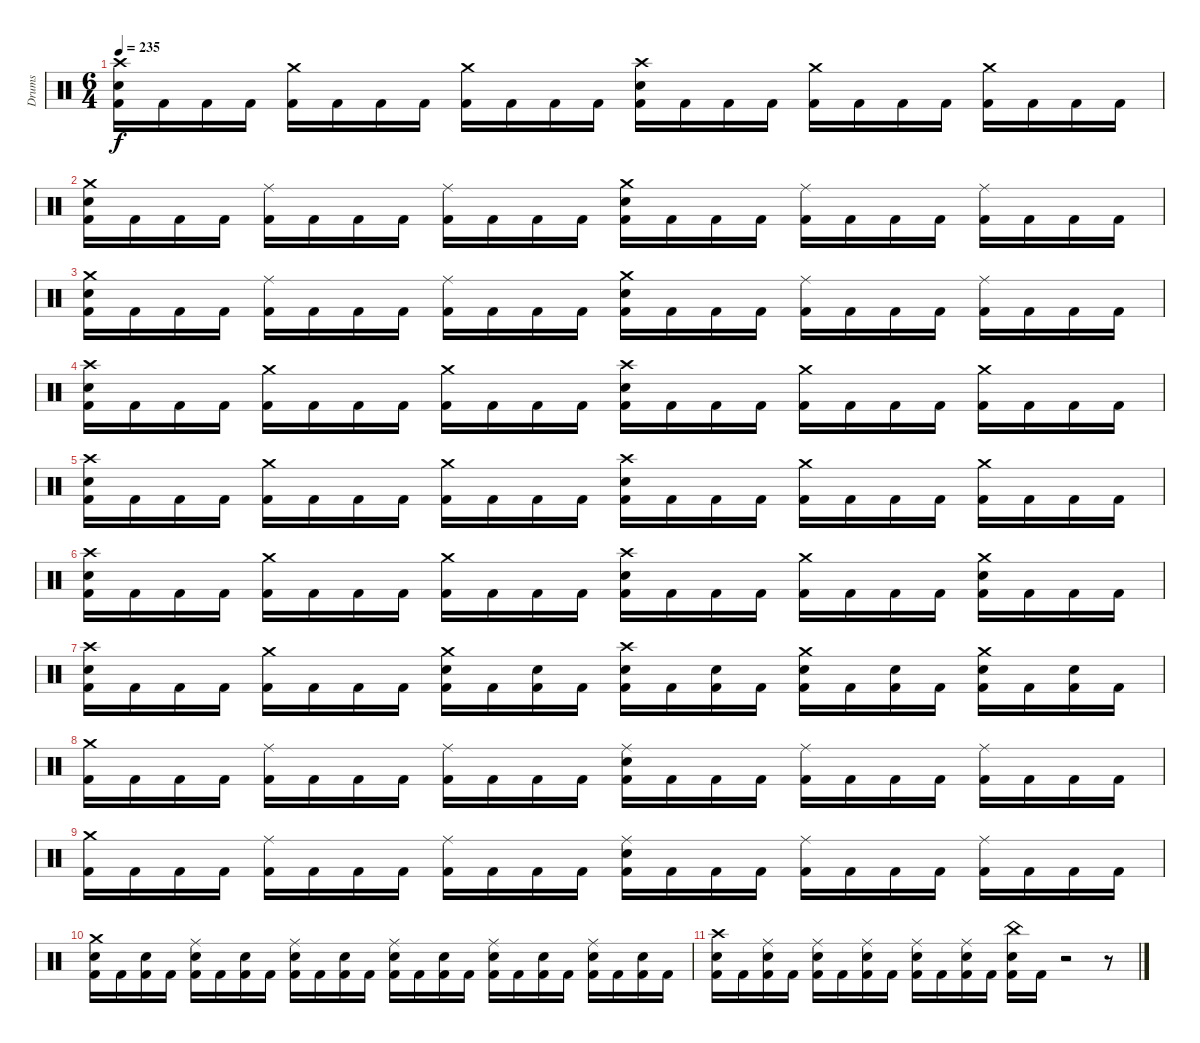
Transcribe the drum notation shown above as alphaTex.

\track ("Drums" "Drums") {instrument percussion}
\staff {score}
\articulation defaults
\ts (6 4)
\tempo 235
\clef neutral
\ks c
("Crash high (hit)" "Electric Snare (hit)" "Kick (hit) 2").16{dy f} "Kick (hit) 2".16 "Kick (hit) 2".16 "Kick (hit) 2".16 ("Crash medium (hit)" "Kick (hit) 2").16 "Kick (hit) 2".16 "Kick (hit) 2".16 "Kick (hit) 2".16 ("Crash medium (hit)" "Kick (hit) 2").16 "Kick (hit) 2".16 "Kick (hit) 2".16 "Kick (hit) 2".16 ("Crash high (hit)" "Electric Snare (hit)" "Kick (hit) 2").16 "Kick (hit) 2".16 "Kick (hit) 2".16 "Kick (hit) 2".16 ("Crash medium (hit)" "Kick (hit) 2").16 "Kick (hit) 2".16 "Kick (hit) 2".16 "Kick (hit) 2".16 ("Crash medium (hit)" "Kick (hit) 2").16 "Kick (hit) 2".16 "Kick (hit) 2".16 "Kick (hit) 2".16 |
("Crash medium (hit)" "Electric Snare (hit)" "Kick (hit) 2").16 "Kick (hit) 2".16 "Kick (hit) 2".16 "Kick (hit) 2".16 ("Ride (middle)" "Kick (hit) 2").16 "Kick (hit) 2".16 "Kick (hit) 2".16 "Kick (hit) 2".16 ("Ride (middle)" "Kick (hit) 2").16 "Kick (hit) 2".16 "Kick (hit) 2".16 "Kick (hit) 2".16 ("Crash medium (hit)" "Electric Snare (hit)" "Kick (hit) 2").16 "Kick (hit) 2".16 "Kick (hit) 2".16 "Kick (hit) 2".16 ("Ride (middle)" "Kick (hit) 2").16 "Kick (hit) 2".16 "Kick (hit) 2".16 "Kick (hit) 2".16 ("Ride (middle)" "Kick (hit) 2").16 "Kick (hit) 2".16 "Kick (hit) 2".16 "Kick (hit) 2".16 |
("Crash medium (hit)" "Electric Snare (hit)" "Kick (hit) 2").16 "Kick (hit) 2".16 "Kick (hit) 2".16 "Kick (hit) 2".16 ("Ride (middle)" "Kick (hit) 2").16 "Kick (hit) 2".16 "Kick (hit) 2".16 "Kick (hit) 2".16 ("Ride (middle)" "Kick (hit) 2").16 "Kick (hit) 2".16 "Kick (hit) 2".16 "Kick (hit) 2".16 ("Crash medium (hit)" "Electric Snare (hit)" "Kick (hit) 2").16 "Kick (hit) 2".16 "Kick (hit) 2".16 "Kick (hit) 2".16 ("Ride (middle)" "Kick (hit) 2").16 "Kick (hit) 2".16 "Kick (hit) 2".16 "Kick (hit) 2".16 ("Ride (middle)" "Kick (hit) 2").16 "Kick (hit) 2".16 "Kick (hit) 2".16 "Kick (hit) 2".16 |
("Crash high (hit)" "Electric Snare (hit)" "Kick (hit) 2").16 "Kick (hit) 2".16 "Kick (hit) 2".16 "Kick (hit) 2".16 ("Crash medium (hit)" "Kick (hit) 2").16 "Kick (hit) 2".16 "Kick (hit) 2".16 "Kick (hit) 2".16 ("Crash medium (hit)" "Kick (hit) 2").16 "Kick (hit) 2".16 "Kick (hit) 2".16 "Kick (hit) 2".16 ("Crash high (hit)" "Electric Snare (hit)" "Kick (hit) 2").16 "Kick (hit) 2".16 "Kick (hit) 2".16 "Kick (hit) 2".16 ("Crash medium (hit)" "Kick (hit) 2").16 "Kick (hit) 2".16 "Kick (hit) 2".16 "Kick (hit) 2".16 ("Crash medium (hit)" "Kick (hit) 2").16 "Kick (hit) 2".16 "Kick (hit) 2".16 "Kick (hit) 2".16 |
("Crash high (hit)" "Electric Snare (hit)" "Kick (hit) 2").16 "Kick (hit) 2".16 "Kick (hit) 2".16 "Kick (hit) 2".16 ("Crash medium (hit)" "Kick (hit) 2").16 "Kick (hit) 2".16 "Kick (hit) 2".16 "Kick (hit) 2".16 ("Crash medium (hit)" "Kick (hit) 2").16 "Kick (hit) 2".16 "Kick (hit) 2".16 "Kick (hit) 2".16 ("Crash high (hit)" "Electric Snare (hit)" "Kick (hit) 2").16 "Kick (hit) 2".16 "Kick (hit) 2".16 "Kick (hit) 2".16 ("Crash medium (hit)" "Kick (hit) 2").16 "Kick (hit) 2".16 "Kick (hit) 2".16 "Kick (hit) 2".16 ("Crash medium (hit)" "Kick (hit) 2").16 "Kick (hit) 2".16 "Kick (hit) 2".16 "Kick (hit) 2".16 |
("Crash high (hit)" "Electric Snare (hit)" "Kick (hit) 2").16 "Kick (hit) 2".16 "Kick (hit) 2".16 "Kick (hit) 2".16 ("Crash medium (hit)" "Kick (hit) 2").16 "Kick (hit) 2".16 "Kick (hit) 2".16 "Kick (hit) 2".16 ("Crash medium (hit)" "Kick (hit) 2").16 "Kick (hit) 2".16 "Kick (hit) 2".16 "Kick (hit) 2".16 ("Crash high (hit)" "Electric Snare (hit)" "Kick (hit) 2").16 "Kick (hit) 2".16 "Kick (hit) 2".16 "Kick (hit) 2".16 ("Crash medium (hit)" "Kick (hit) 2").16 "Kick (hit) 2".16 "Kick (hit) 2".16 "Kick (hit) 2".16 ("Crash medium (hit)" "Electric Snare (hit)" "Kick (hit) 2").16 "Kick (hit) 2".16 "Kick (hit) 2".16 "Kick (hit) 2".16 |
("Crash high (hit)" "Electric Snare (hit)" "Kick (hit) 2").16 "Kick (hit) 2".16 "Kick (hit) 2".16 "Kick (hit) 2".16 ("Crash medium (hit)" "Kick (hit) 2").16 "Kick (hit) 2".16 "Kick (hit) 2".16 "Kick (hit) 2".16 ("Crash medium (hit)" "Electric Snare (hit)" "Kick (hit) 2").16 "Kick (hit) 2".16 ("Electric Snare (hit)" "Kick (hit) 2").16 "Kick (hit) 2".16 ("Crash high (hit)" "Electric Snare (hit)" "Kick (hit) 2").16 "Kick (hit) 2".16 ("Electric Snare (hit)" "Kick (hit) 2").16 "Kick (hit) 2".16 ("Crash medium (hit)" "Electric Snare (hit)" "Kick (hit) 2").16 "Kick (hit) 2".16 ("Electric Snare (hit)" "Kick (hit) 2").16 "Kick (hit) 2".16 ("Crash medium (hit)" "Electric Snare (hit)" "Kick (hit) 2").16 "Kick (hit) 2".16 ("Electric Snare (hit)" "Kick (hit) 2").16 "Kick (hit) 2".16 |
("Crash medium (hit)" "Kick (hit) 2").16 "Kick (hit) 2".16 "Kick (hit) 2".16 "Kick (hit) 2".16 ("Ride (middle)" "Kick (hit) 2").16 "Kick (hit) 2".16 "Kick (hit) 2".16 "Kick (hit) 2".16 ("Ride (middle)" "Kick (hit) 2").16 "Kick (hit) 2".16 "Kick (hit) 2".16 "Kick (hit) 2".16 ("Ride (middle)" "Electric Snare (hit)" "Kick (hit) 2").16 "Kick (hit) 2".16 "Kick (hit) 2".16 "Kick (hit) 2".16 ("Ride (middle)" "Kick (hit) 2").16 "Kick (hit) 2".16 "Kick (hit) 2".16 "Kick (hit) 2".16 ("Ride (middle)" "Kick (hit) 2").16 "Kick (hit) 2".16 "Kick (hit) 2".16 "Kick (hit) 2".16 |
("Crash medium (hit)" "Kick (hit) 2").16 "Kick (hit) 2".16 "Kick (hit) 2".16 "Kick (hit) 2".16 ("Ride (middle)" "Kick (hit) 2").16 "Kick (hit) 2".16 "Kick (hit) 2".16 "Kick (hit) 2".16 ("Ride (middle)" "Kick (hit) 2").16 "Kick (hit) 2".16 "Kick (hit) 2".16 "Kick (hit) 2".16 ("Ride (middle)" "Electric Snare (hit)" "Kick (hit) 2").16 "Kick (hit) 2".16 "Kick (hit) 2".16 "Kick (hit) 2".16 ("Ride (middle)" "Kick (hit) 2").16 "Kick (hit) 2".16 "Kick (hit) 2".16 "Kick (hit) 2".16 ("Ride (middle)" "Kick (hit) 2").16 "Kick (hit) 2".16 "Kick (hit) 2".16 "Kick (hit) 2".16 |
("Crash medium (hit)" "Electric Snare (hit)" "Kick (hit) 2").16 "Kick (hit) 2".16 ("Electric Snare (hit)" "Kick (hit) 2").16 "Kick (hit) 2".16 ("Ride (middle)" "Electric Snare (hit)" "Kick (hit) 2").16 "Kick (hit) 2".16 ("Electric Snare (hit)" "Kick (hit) 2").16 "Kick (hit) 2".16 ("Ride (middle)" "Electric Snare (hit)" "Kick (hit) 2").16 "Kick (hit) 2".16 ("Electric Snare (hit)" "Kick (hit) 2").16 "Kick (hit) 2".16 ("Ride (middle)" "Electric Snare (hit)" "Kick (hit) 2").16 "Kick (hit) 2".16 ("Electric Snare (hit)" "Kick (hit) 2").16 "Kick (hit) 2".16 ("Ride (middle)" "Electric Snare (hit)" "Kick (hit) 2").16 "Kick (hit) 2".16 ("Electric Snare (hit)" "Kick (hit) 2").16 "Kick (hit) 2".16 ("Ride (middle)" "Electric Snare (hit)" "Kick (hit) 2").16 "Kick (hit) 2".16 ("Electric Snare (hit)" "Kick (hit) 2").16 "Kick (hit) 2".16 |
("Crash high (hit)" "Electric Snare (hit)" "Kick (hit) 2").16 "Kick (hit) 2".16 ("Ride (middle)" "Electric Snare (hit)" "Kick (hit) 2").16 "Kick (hit) 2".16 ("Ride (middle)" "Electric Snare (hit)" "Kick (hit) 2").16 "Kick (hit) 2".16 ("Ride (middle)" "Electric Snare (hit)" "Kick (hit) 2").16 "Kick (hit) 2".16 ("Ride (middle)" "Electric Snare (hit)" "Kick (hit) 2").16 "Kick (hit) 2".16 ("Ride (middle)" "Electric Snare (hit)" "Kick (hit) 2").16 "Kick (hit) 2".16 ("China (hit)" "Electric Snare (hit)" "Kick (hit) 2").16 "Kick (hit) 2".16 r.2 r.8
